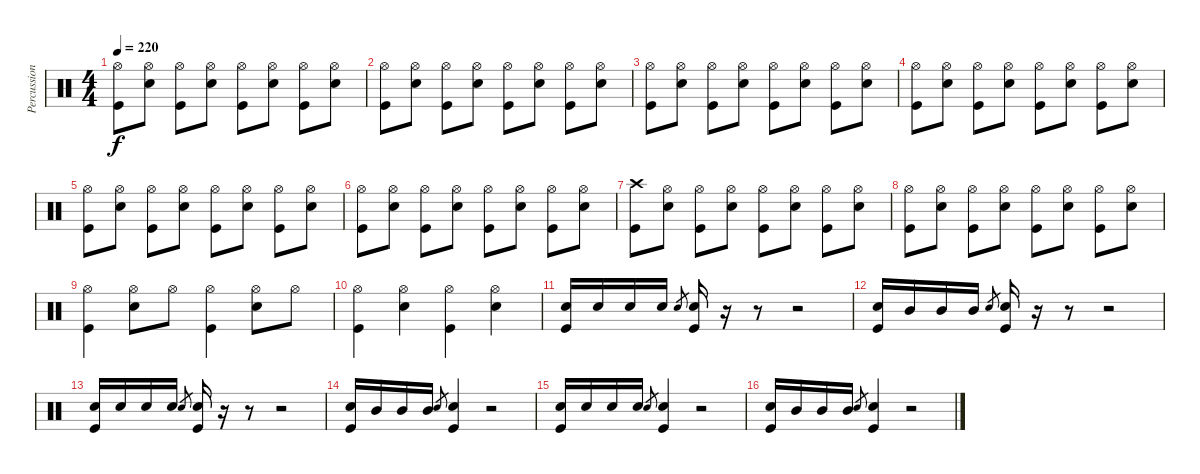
\track ("Percussions" "Percussion") {instrument percussion}
\staff {score}
\articulation defaults
\ts (4 4)
\tempo 220
\clef neutral
\ks c
("Kick (hit)" "Hi-Hat (open)").8{dy f} ("Electric Snare (hit)" "Hi-Hat (open)").8 ("Kick (hit)" "Hi-Hat (open)").8 ("Electric Snare (hit)" "Hi-Hat (open)").8 ("Kick (hit)" "Hi-Hat (open)").8 ("Electric Snare (hit)" "Hi-Hat (open)").8 ("Kick (hit)" "Hi-Hat (open)").8 ("Electric Snare (hit)" "Hi-Hat (open)").8 |
("Kick (hit)" "Hi-Hat (open)").8 ("Electric Snare (hit)" "Hi-Hat (open)").8 ("Kick (hit)" "Hi-Hat (open)").8 ("Electric Snare (hit)" "Hi-Hat (open)").8 ("Kick (hit)" "Hi-Hat (open)").8 ("Electric Snare (hit)" "Hi-Hat (open)").8 ("Kick (hit)" "Hi-Hat (open)").8 ("Electric Snare (hit)" "Hi-Hat (open)").8 |
("Kick (hit)" "Hi-Hat (open)").8 ("Electric Snare (hit)" "Hi-Hat (open)").8 ("Kick (hit)" "Hi-Hat (open)").8 ("Electric Snare (hit)" "Hi-Hat (open)").8 ("Kick (hit)" "Hi-Hat (open)").8 ("Electric Snare (hit)" "Hi-Hat (open)").8 ("Kick (hit)" "Hi-Hat (open)").8 ("Electric Snare (hit)" "Hi-Hat (open)").8 |
("Kick (hit)" "Hi-Hat (open)").8 ("Electric Snare (hit)" "Hi-Hat (open)").8 ("Kick (hit)" "Hi-Hat (open)").8 ("Electric Snare (hit)" "Hi-Hat (open)").8 ("Kick (hit)" "Hi-Hat (open)").8 ("Electric Snare (hit)" "Hi-Hat (open)").8 ("Kick (hit)" "Hi-Hat (open)").8 ("Electric Snare (hit)" "Hi-Hat (open)").8 |
("Kick (hit)" "Hi-Hat (open)").8 ("Electric Snare (hit)" "Hi-Hat (open)").8 ("Kick (hit)" "Hi-Hat (open)").8 ("Electric Snare (hit)" "Hi-Hat (open)").8 ("Kick (hit)" "Hi-Hat (open)").8 ("Electric Snare (hit)" "Hi-Hat (open)").8 ("Kick (hit)" "Hi-Hat (open)").8 ("Electric Snare (hit)" "Hi-Hat (open)").8 |
("Kick (hit)" "Hi-Hat (open)").8 ("Electric Snare (hit)" "Hi-Hat (open)").8 ("Kick (hit)" "Hi-Hat (open)").8 ("Electric Snare (hit)" "Hi-Hat (open)").8 ("Kick (hit)" "Hi-Hat (open)").8 ("Electric Snare (hit)" "Hi-Hat (open)").8 ("Kick (hit)" "Hi-Hat (open)").8 ("Electric Snare (hit)" "Hi-Hat (open)").8 |
("Kick (hit)" "Crash high (hit)").8 ("Electric Snare (hit)" "Hi-Hat (open)").8 ("Kick (hit)" "Hi-Hat (open)").8 ("Electric Snare (hit)" "Hi-Hat (open)").8 ("Kick (hit)" "Hi-Hat (open)").8 ("Electric Snare (hit)" "Hi-Hat (open)").8 ("Kick (hit)" "Hi-Hat (open)").8 ("Electric Snare (hit)" "Hi-Hat (open)").8 |
("Kick (hit)" "Hi-Hat (open)").8 ("Electric Snare (hit)" "Hi-Hat (open)").8 ("Kick (hit)" "Hi-Hat (open)").8 ("Electric Snare (hit)" "Hi-Hat (open)").8 ("Kick (hit)" "Hi-Hat (open)").8 ("Electric Snare (hit)" "Hi-Hat (open)").8 ("Kick (hit)" "Hi-Hat (open)").8 ("Electric Snare (hit)" "Hi-Hat (open)").8 |
("Kick (hit)" "Hi-Hat (open)").4 ("Electric Snare (hit)" "Hi-Hat (open)").8 "Hi-Hat (open)".8 ("Kick (hit)" "Hi-Hat (open)").4 ("Electric Snare (hit)" "Hi-Hat (open)").8 "Hi-Hat (open)".8 |
("Kick (hit)" "Hi-Hat (open)").4 ("Electric Snare (hit)" "Hi-Hat (open)").4 ("Kick (hit)" "Hi-Hat (open)").4 ("Electric Snare (hit)" "Hi-Hat (open)").4 |
("Kick (hit)" "Electric Snare (hit)").16 "Electric Snare (hit)".16 "Electric Snare (hit)".16 "Electric Snare (hit)".16 "Electric Snare (hit)".8{gr} ("Kick (hit)" "Electric Snare (hit)").16 r.16 r.8 r.2 |
("Kick (hit)" "Electric Snare (hit)").16 "Mid Tom (hit)".16 "Mid Tom (hit)".16 "Mid Tom (hit)".16 "Electric Snare (hit)".8{gr} ("Kick (hit)" "Electric Snare (hit)").16 r.16 r.8 r.2 |
("Kick (hit)" "Electric Snare (hit)").16 "Electric Snare (hit)".16 "Electric Snare (hit)".16 "Electric Snare (hit)".16 "Electric Snare (hit)".8{gr} ("Kick (hit)" "Electric Snare (hit)").16 r.16 r.8 r.2 |
("Kick (hit)" "Electric Snare (hit)").16 "Mid Tom (hit)".16 "Mid Tom (hit)".16 "Mid Tom (hit)".16 "Electric Snare (hit)".8{gr} ("Kick (hit)" "Electric Snare (hit)").4 r.2 |
("Kick (hit)" "Electric Snare (hit)").16 "Electric Snare (hit)".16 "Electric Snare (hit)".16 "Electric Snare (hit)".16 "Electric Snare (hit)".8{gr} ("Kick (hit)" "Electric Snare (hit)").4 r.2 |
("Kick (hit)" "Electric Snare (hit)").16 "Mid Tom (hit)".16 "Mid Tom (hit)".16 "Mid Tom (hit)".16 "Electric Snare (hit)".8{gr} ("Kick (hit)" "Electric Snare (hit)").4 r.2
